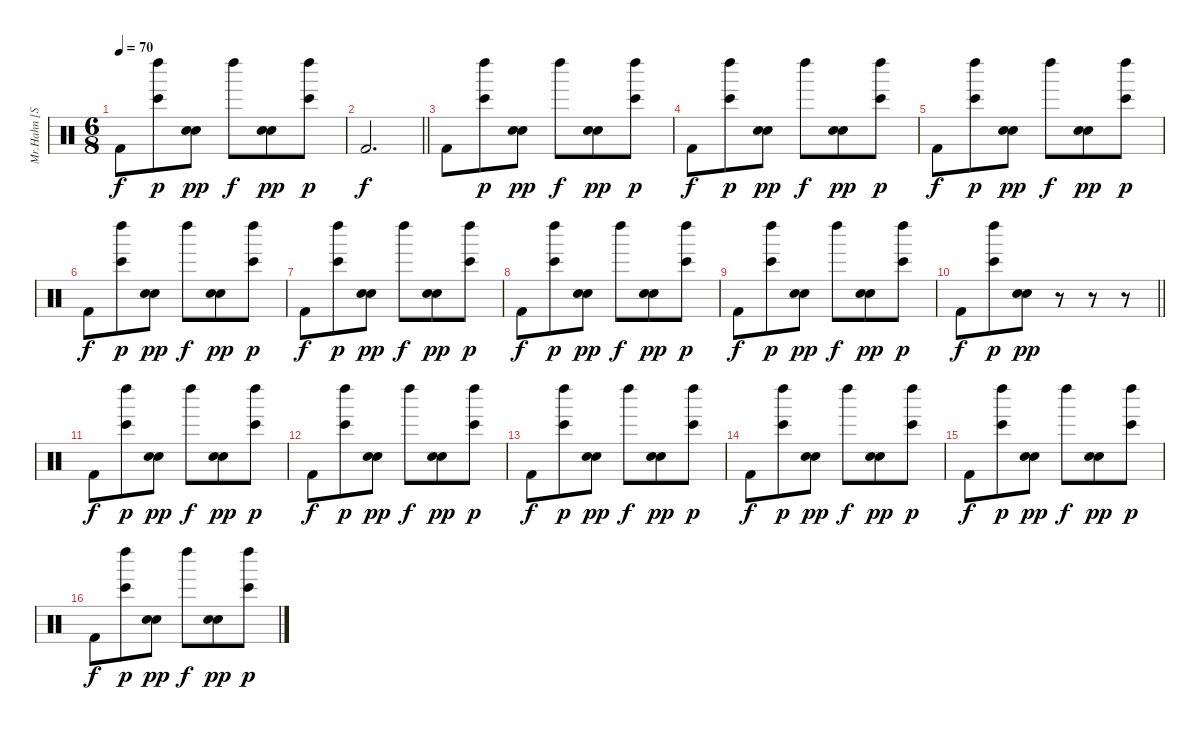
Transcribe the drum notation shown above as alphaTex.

\track ("Mr.Hahn [Sampler 4 Digital Drums]" "Mr.Hahn [S") {instrument percussion}
\staff {score}
\articulation defaults
\ts (6 8)
\tempo 70
\clef neutral
\ks c "Kick (hit) 2".8{dy f}
("Left Maraca (hit)" "Bongo High (hit)").8{dy p} ("Snare (hit) 2" "Electric Snare (hit)").8{dy pp} "Left Maraca (hit)".8{dy f} ("Snare (hit) 2" "Electric Snare (hit)").8{dy pp} ("Left Maraca (hit)" "Bongo High (hit)").8{dy p} |
\barLineRight lightlight "Kick (hit) 2".2{d dy f}
|
"Kick (hit) 2".8 ("Left Maraca (hit)" "Bongo High (hit)").8{dy p} ("Snare (hit) 2" "Electric Snare (hit)").8{dy pp} "Left Maraca (hit)".8{dy f} ("Snare (hit) 2" "Electric Snare (hit)").8{dy pp} ("Left Maraca (hit)" "Bongo High (hit)").8{dy p} |
"Kick (hit) 2".8{dy f} ("Left Maraca (hit)" "Bongo High (hit)").8{dy p} ("Snare (hit) 2" "Electric Snare (hit)").8{dy pp} "Left Maraca (hit)".8{dy f} ("Snare (hit) 2" "Electric Snare (hit)").8{dy pp} ("Left Maraca (hit)" "Bongo High (hit)").8{dy p} |
"Kick (hit) 2".8{dy f} ("Left Maraca (hit)" "Bongo High (hit)").8{dy p} ("Snare (hit) 2" "Electric Snare (hit)").8{dy pp} "Left Maraca (hit)".8{dy f} ("Snare (hit) 2" "Electric Snare (hit)").8{dy pp} ("Left Maraca (hit)" "Bongo High (hit)").8{dy p} |
"Kick (hit) 2".8{dy f} ("Left Maraca (hit)" "Bongo High (hit)").8{dy p} ("Snare (hit) 2" "Electric Snare (hit)").8{dy pp} "Left Maraca (hit)".8{dy f} ("Snare (hit) 2" "Electric Snare (hit)").8{dy pp} ("Left Maraca (hit)" "Bongo High (hit)").8{dy p} |
"Kick (hit) 2".8{dy f} ("Left Maraca (hit)" "Bongo High (hit)").8{dy p} ("Snare (hit) 2" "Electric Snare (hit)").8{dy pp} "Left Maraca (hit)".8{dy f} ("Snare (hit) 2" "Electric Snare (hit)").8{dy pp} ("Left Maraca (hit)" "Bongo High (hit)").8{dy p} |
"Kick (hit) 2".8{dy f} ("Left Maraca (hit)" "Bongo High (hit)").8{dy p} ("Snare (hit) 2" "Electric Snare (hit)").8{dy pp} "Left Maraca (hit)".8{dy f} ("Snare (hit) 2" "Electric Snare (hit)").8{dy pp} ("Left Maraca (hit)" "Bongo High (hit)").8{dy p} |
"Kick (hit) 2".8{dy f} ("Left Maraca (hit)" "Bongo High (hit)").8{dy p} ("Snare (hit) 2" "Electric Snare (hit)").8{dy pp} "Left Maraca (hit)".8{dy f} ("Snare (hit) 2" "Electric Snare (hit)").8{dy pp} ("Left Maraca (hit)" "Bongo High (hit)").8{dy p} |
\barLineRight lightlight "Kick (hit) 2".8{dy f}
("Left Maraca (hit)" "Bongo High (hit)").8{dy p} ("Snare (hit) 2" "Electric Snare (hit)").8{dy pp} r.8 r.8 r.8 |
"Kick (hit) 2".8{dy f} ("Left Maraca (hit)" "Bongo High (hit)").8{dy p} ("Snare (hit) 2" "Electric Snare (hit)").8{dy pp} "Left Maraca (hit)".8{dy f} ("Snare (hit) 2" "Electric Snare (hit)").8{dy pp} ("Left Maraca (hit)" "Bongo High (hit)").8{dy p} |
"Kick (hit) 2".8{dy f} ("Left Maraca (hit)" "Bongo High (hit)").8{dy p} ("Snare (hit) 2" "Electric Snare (hit)").8{dy pp} "Left Maraca (hit)".8{dy f} ("Snare (hit) 2" "Electric Snare (hit)").8{dy pp} ("Left Maraca (hit)" "Bongo High (hit)").8{dy p} |
"Kick (hit) 2".8{dy f} ("Left Maraca (hit)" "Bongo High (hit)").8{dy p} ("Snare (hit) 2" "Electric Snare (hit)").8{dy pp} "Left Maraca (hit)".8{dy f} ("Snare (hit) 2" "Electric Snare (hit)").8{dy pp} ("Left Maraca (hit)" "Bongo High (hit)").8{dy p} |
"Kick (hit) 2".8{dy f} ("Left Maraca (hit)" "Bongo High (hit)").8{dy p} ("Snare (hit) 2" "Electric Snare (hit)").8{dy pp} "Left Maraca (hit)".8{dy f} ("Snare (hit) 2" "Electric Snare (hit)").8{dy pp} ("Left Maraca (hit)" "Bongo High (hit)").8{dy p} |
"Kick (hit) 2".8{dy f} ("Left Maraca (hit)" "Bongo High (hit)").8{dy p} ("Snare (hit) 2" "Electric Snare (hit)").8{dy pp} "Left Maraca (hit)".8{dy f} ("Snare (hit) 2" "Electric Snare (hit)").8{dy pp} ("Left Maraca (hit)" "Bongo High (hit)").8{dy p} |
"Kick (hit) 2".8{dy f} ("Left Maraca (hit)" "Bongo High (hit)").8{dy p} ("Snare (hit) 2" "Electric Snare (hit)").8{dy pp} "Left Maraca (hit)".8{dy f} ("Snare (hit) 2" "Electric Snare (hit)").8{dy pp} ("Left Maraca (hit)" "Bongo High (hit)").8{dy p}
